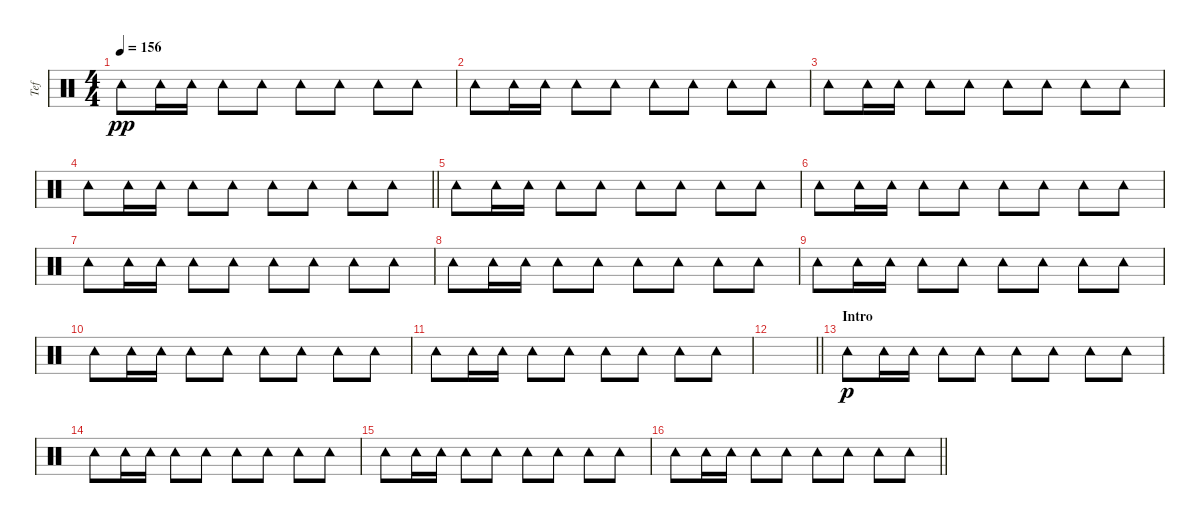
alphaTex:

\track ("Tef" "Tef") {instrument percussion}
\staff {score}
\articulation defaults
\ts (4 4)
\tempo 156
\clef neutral
\ks c "Tambourine (hit)".8{dy pp} "Tambourine (hit)".16 "Tambourine (hit)".16 "Tambourine (hit)".8 "Tambourine (hit)".8 "Tambourine (hit)".8 "Tambourine (hit)".8 "Tambourine (hit)".8 "Tambourine (hit)".8
|
"Tambourine (hit)".8 "Tambourine (hit)".16 "Tambourine (hit)".16 "Tambourine (hit)".8 "Tambourine (hit)".8 "Tambourine (hit)".8 "Tambourine (hit)".8 "Tambourine (hit)".8 "Tambourine (hit)".8 |
"Tambourine (hit)".8 "Tambourine (hit)".16 "Tambourine (hit)".16 "Tambourine (hit)".8 "Tambourine (hit)".8 "Tambourine (hit)".8 "Tambourine (hit)".8 "Tambourine (hit)".8 "Tambourine (hit)".8 |
\barLineRight lightlight "Tambourine (hit)".8 "Tambourine (hit)".16 "Tambourine (hit)".16 "Tambourine (hit)".8 "Tambourine (hit)".8 "Tambourine (hit)".8 "Tambourine (hit)".8 "Tambourine (hit)".8 "Tambourine (hit)".8
|
"Tambourine (hit)".8 "Tambourine (hit)".16 "Tambourine (hit)".16 "Tambourine (hit)".8 "Tambourine (hit)".8 "Tambourine (hit)".8 "Tambourine (hit)".8 "Tambourine (hit)".8 "Tambourine (hit)".8 |
"Tambourine (hit)".8 "Tambourine (hit)".16 "Tambourine (hit)".16 "Tambourine (hit)".8 "Tambourine (hit)".8 "Tambourine (hit)".8 "Tambourine (hit)".8 "Tambourine (hit)".8 "Tambourine (hit)".8 |
"Tambourine (hit)".8 "Tambourine (hit)".16 "Tambourine (hit)".16 "Tambourine (hit)".8 "Tambourine (hit)".8 "Tambourine (hit)".8 "Tambourine (hit)".8 "Tambourine (hit)".8 "Tambourine (hit)".8 |
"Tambourine (hit)".8 "Tambourine (hit)".16 "Tambourine (hit)".16 "Tambourine (hit)".8 "Tambourine (hit)".8 "Tambourine (hit)".8 "Tambourine (hit)".8 "Tambourine (hit)".8 "Tambourine (hit)".8 |
"Tambourine (hit)".8 "Tambourine (hit)".16 "Tambourine (hit)".16 "Tambourine (hit)".8 "Tambourine (hit)".8 "Tambourine (hit)".8 "Tambourine (hit)".8 "Tambourine (hit)".8 "Tambourine (hit)".8 |
"Tambourine (hit)".8 "Tambourine (hit)".16 "Tambourine (hit)".16 "Tambourine (hit)".8 "Tambourine (hit)".8 "Tambourine (hit)".8 "Tambourine (hit)".8 "Tambourine (hit)".8 "Tambourine (hit)".8 |
"Tambourine (hit)".8 "Tambourine (hit)".16 "Tambourine (hit)".16 "Tambourine (hit)".8 "Tambourine (hit)".8 "Tambourine (hit)".8 "Tambourine (hit)".8 "Tambourine (hit)".8 "Tambourine (hit)".8 |
\barLineRight lightlight
|
\section ("" "Intro")
"Tambourine (hit)".8{dy p} "Tambourine (hit)".16 "Tambourine (hit)".16 "Tambourine (hit)".8 "Tambourine (hit)".8 "Tambourine (hit)".8 "Tambourine (hit)".8 "Tambourine (hit)".8 "Tambourine (hit)".8 |
"Tambourine (hit)".8 "Tambourine (hit)".16 "Tambourine (hit)".16 "Tambourine (hit)".8 "Tambourine (hit)".8 "Tambourine (hit)".8 "Tambourine (hit)".8 "Tambourine (hit)".8 "Tambourine (hit)".8 |
"Tambourine (hit)".8 "Tambourine (hit)".16 "Tambourine (hit)".16 "Tambourine (hit)".8 "Tambourine (hit)".8 "Tambourine (hit)".8 "Tambourine (hit)".8 "Tambourine (hit)".8 "Tambourine (hit)".8 |
\barLineRight lightlight "Tambourine (hit)".8 "Tambourine (hit)".16 "Tambourine (hit)".16 "Tambourine (hit)".8 "Tambourine (hit)".8 "Tambourine (hit)".8 "Tambourine (hit)".8 "Tambourine (hit)".8 "Tambourine (hit)".8
